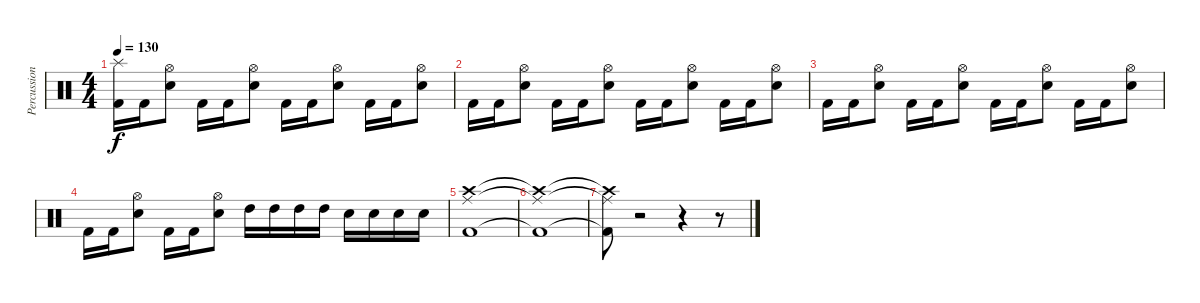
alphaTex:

\track ("Percussion" "Percussion") {instrument percussion}
\staff {score}
\articulation defaults
\ts (4 4)
\tempo 130
\clef neutral
\ks c
("Splash (hit)" "Kick (hit) 2").16{dy f} "Kick (hit) 2".16 ("Hi-Hat (open)" "Electric Snare (hit)").8 "Kick (hit) 2".16 "Kick (hit) 2".16 ("Hi-Hat (open)" "Electric Snare (hit)").8 "Kick (hit) 2".16 "Kick (hit) 2".16 ("Hi-Hat (open)" "Electric Snare (hit)").8 "Kick (hit) 2".16 "Kick (hit) 2".16 ("Hi-Hat (open)" "Electric Snare (hit)").8 |
"Kick (hit) 2".16 "Kick (hit) 2".16 ("Hi-Hat (open)" "Electric Snare (hit)").8 "Kick (hit) 2".16 "Kick (hit) 2".16 ("Hi-Hat (open)" "Electric Snare (hit)").8 "Kick (hit) 2".16 "Kick (hit) 2".16 ("Hi-Hat (open)" "Electric Snare (hit)").8 "Kick (hit) 2".16 "Kick (hit) 2".16 ("Hi-Hat (open)" "Electric Snare (hit)").8 |
"Kick (hit) 2".16 "Kick (hit) 2".16 ("Hi-Hat (open)" "Electric Snare (hit)").8 "Kick (hit) 2".16 "Kick (hit) 2".16 ("Hi-Hat (open)" "Electric Snare (hit)").8 "Kick (hit) 2".16 "Kick (hit) 2".16 ("Hi-Hat (open)" "Electric Snare (hit)").8 "Kick (hit) 2".16 "Kick (hit) 2".16 ("Hi-Hat (open)" "Electric Snare (hit)").8 |
"Kick (hit) 2".16 "Kick (hit) 2".16 ("Hi-Hat (open)" "Electric Snare (hit)").8 "Kick (hit) 2".16 "Kick (hit) 2".16 ("Hi-Hat (open)" "Electric Snare (hit)").8 "High Tom (hit)".16 "High Tom (hit)".16 "High Tom (hit)".16 "High Tom (hit)".16 "Electric Snare (hit)".16 "Electric Snare (hit)".16 "Electric Snare (hit)".16 "Electric Snare (hit)".16 |
("Crash high (hit)" "Ride (middle)" "Kick (hit) 2").1 |
("Crash high (hit)"{t} "Ride (middle)"{t} "Kick (hit) 2"{t}).1 |
("Crash high (hit)"{t} "Ride (middle)"{t} "Kick (hit) 2"{t}).8 r.2 r.4 r.8
